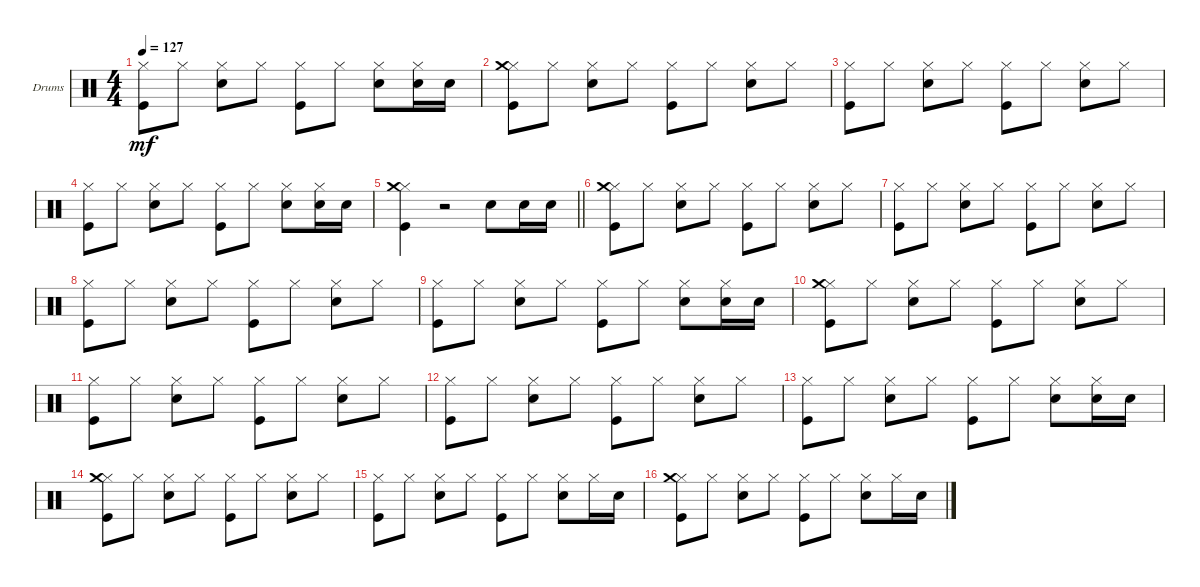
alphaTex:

\defaultSystemsLayout 4
\bracketExtendMode groupsimilarinstruments
\firstSystemTrackNameOrientation horizontal
\otherSystemsTrackNameOrientation horizontal
\track ("Drumkit" "Drums") {instrument percussion}
\staff {score}
\articulation defaults
\ts (4 4)
\tempo 127
\clef neutral
\scale
0.25
\ks c
("Kick (hit)" "Hi-Hat (closed)").8{dy mf} "Hi-Hat (closed)".8 ("Snare (hit) 2" "Hi-Hat (closed)").8 "Hi-Hat (closed)".8 ("Kick (hit)" "Hi-Hat (closed)").8 "Hi-Hat (closed)".8 ("Snare (hit) 2" "Hi-Hat (closed)").8 ("Snare (hit) 2" "Hi-Hat (closed)").16 "Snare (hit) 2".16 |
\scale
0.25 ("Kick (hit)" "Hi-Hat (closed)" "Crash medium (hit)").8 "Hi-Hat (closed)".8 ("Snare (hit) 2" "Hi-Hat (closed)").8 "Hi-Hat (closed)".8 ("Kick (hit)" "Hi-Hat (closed)").8 "Hi-Hat (closed)".8 ("Snare (hit) 2" "Hi-Hat (closed)").8 "Hi-Hat (closed)".8 |
\scale
0.25 ("Kick (hit)" "Hi-Hat (closed)").8 "Hi-Hat (closed)".8 ("Snare (hit) 2" "Hi-Hat (closed)").8 "Hi-Hat (closed)".8 ("Kick (hit)" "Hi-Hat (closed)").8 "Hi-Hat (closed)".8 ("Snare (hit) 2" "Hi-Hat (closed)").8 "Hi-Hat (closed)".8 |
\scale
0.25 ("Kick (hit)" "Hi-Hat (closed)").8 "Hi-Hat (closed)".8 ("Snare (hit) 2" "Hi-Hat (closed)").8 "Hi-Hat (closed)".8 ("Kick (hit)" "Hi-Hat (closed)").8 "Hi-Hat (closed)".8 ("Snare (hit) 2" "Hi-Hat (closed)").8 ("Hi-Hat (closed)" "Snare (hit) 2").16 "Snare (hit) 2".16 |
\scale
0.25
\barLineRight lightlight
("Hi-Hat (closed)" "Kick (hit)" "Crash medium (hit)").4 r.2 "Snare (hit) 2".8 "Snare (hit) 2".16 "Snare (hit) 2".16 |
\scale
0.25 ("Kick (hit)" "Hi-Hat (closed)" "Crash medium (hit)").8 "Hi-Hat (closed)".8 ("Snare (hit) 2" "Hi-Hat (closed)").8 "Hi-Hat (closed)".8 ("Kick (hit)" "Hi-Hat (closed)").8 "Hi-Hat (closed)".8 ("Snare (hit) 2" "Hi-Hat (closed)").8 "Hi-Hat (closed)".8 |
\scale
0.25 ("Kick (hit)" "Hi-Hat (closed)").8 "Hi-Hat (closed)".8 ("Snare (hit) 2" "Hi-Hat (closed)").8 "Hi-Hat (closed)".8 ("Kick (hit)" "Hi-Hat (closed)").8 "Hi-Hat (closed)".8 ("Snare (hit) 2" "Hi-Hat (closed)").8 "Hi-Hat (closed)".8 |
\scale
0.25 ("Kick (hit)" "Hi-Hat (closed)").8 "Hi-Hat (closed)".8 ("Snare (hit) 2" "Hi-Hat (closed)").8 "Hi-Hat (closed)".8 ("Kick (hit)" "Hi-Hat (closed)").8 "Hi-Hat (closed)".8 ("Snare (hit) 2" "Hi-Hat (closed)").8 "Hi-Hat (closed)".8 |
\scale
0.25 ("Kick (hit)" "Hi-Hat (closed)").8 "Hi-Hat (closed)".8 ("Snare (hit) 2" "Hi-Hat (closed)").8 "Hi-Hat (closed)".8 ("Kick (hit)" "Hi-Hat (closed)").8 "Hi-Hat (closed)".8 ("Snare (hit) 2" "Hi-Hat (closed)").8 ("Snare (hit) 2" "Hi-Hat (closed)").16 "Snare (hit) 2".16 |
\scale
0.25 ("Kick (hit)" "Hi-Hat (closed)" "Crash medium (hit)").8 "Hi-Hat (closed)".8 ("Snare (hit) 2" "Hi-Hat (closed)").8 "Hi-Hat (closed)".8 ("Kick (hit)" "Hi-Hat (closed)").8 "Hi-Hat (closed)".8 ("Snare (hit) 2" "Hi-Hat (closed)").8 "Hi-Hat (closed)".8 |
\scale
0.25 ("Kick (hit)" "Hi-Hat (closed)").8 "Hi-Hat (closed)".8 ("Snare (hit) 2" "Hi-Hat (closed)").8 "Hi-Hat (closed)".8 ("Kick (hit)" "Hi-Hat (closed)").8 "Hi-Hat (closed)".8 ("Snare (hit) 2" "Hi-Hat (closed)").8 "Hi-Hat (closed)".8 |
\scale
0.25 ("Kick (hit)" "Hi-Hat (closed)").8 "Hi-Hat (closed)".8 ("Snare (hit) 2" "Hi-Hat (closed)").8 "Hi-Hat (closed)".8 ("Kick (hit)" "Hi-Hat (closed)").8 "Hi-Hat (closed)".8 ("Snare (hit) 2" "Hi-Hat (closed)").8 "Hi-Hat (closed)".8 |
\scale
0.25 ("Kick (hit)" "Hi-Hat (closed)").8 "Hi-Hat (closed)".8 ("Snare (hit) 2" "Hi-Hat (closed)").8 "Hi-Hat (closed)".8 ("Kick (hit)" "Hi-Hat (closed)").8 "Hi-Hat (closed)".8 ("Snare (hit) 2" "Hi-Hat (closed)").8 ("Snare (hit) 2" "Hi-Hat (closed)").16 "Snare (hit) 2".16 |
\scale
0.25 ("Kick (hit)" "Hi-Hat (closed)" "Crash medium (hit)").8 "Hi-Hat (closed)".8 ("Snare (hit) 2" "Hi-Hat (closed)").8 "Hi-Hat (closed)".8 ("Kick (hit)" "Hi-Hat (closed)").8 "Hi-Hat (closed)".8 ("Snare (hit) 2" "Hi-Hat (closed)").8 "Hi-Hat (closed)".8 |
\scale
0.25 ("Kick (hit)" "Hi-Hat (closed)").8 "Hi-Hat (closed)".8 ("Snare (hit) 2" "Hi-Hat (closed)").8 "Hi-Hat (closed)".8 ("Kick (hit)" "Hi-Hat (closed)").8 "Hi-Hat (closed)".8 ("Snare (hit) 2" "Hi-Hat (closed)").8 "Hi-Hat (closed)".16 "Snare (hit) 2".16 |
\scale
0.25 ("Kick (hit)" "Hi-Hat (closed)" "Crash medium (hit)").8 "Hi-Hat (closed)".8 ("Snare (hit) 2" "Hi-Hat (closed)").8 "Hi-Hat (closed)".8 ("Kick (hit)" "Hi-Hat (closed)").8 "Hi-Hat (closed)".8 ("Snare (hit) 2" "Hi-Hat (closed)").8 "Hi-Hat (closed)".16 "Snare (hit) 2".16
